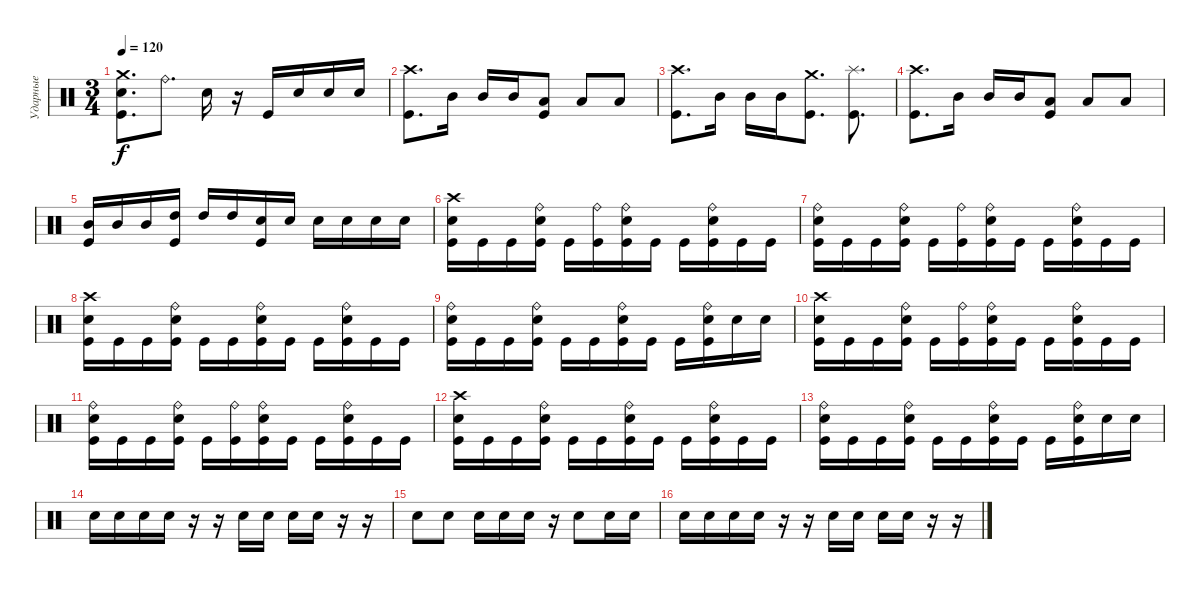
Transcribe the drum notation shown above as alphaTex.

\track ("Ударные" "Ударные") {instrument percussion}
\staff {score}
\articulation defaults
\ts (3 4)
\tempo 120
\clef neutral
\ks c
("Crash medium (hit)" "Electric Snare (hit)" "Kick (hit)").8{d dy f} "Ride (bell)".8{d} "Electric Snare (hit)".16 r.16 "Kick (hit)".16 "Electric Snare (hit)".16 "Electric Snare (hit)".16 "Electric Snare (hit)".16 |
("Crash high (hit)" "Kick (hit)").8{d} "Mid Tom (hit)".16 "Mid Tom (hit)".16 "Mid Tom (hit)".16 ("Low Tom (hit)" "Kick (hit)").8 "Low Tom (hit)".8 "Low Tom (hit)".8 |
("Crash high (hit)" "Kick (hit)").8{d} "Mid Tom (hit)".16 "Mid Tom (hit)".16 "Mid Tom (hit)".16 ("Crash medium (hit)" "Kick (hit)").8{d} ("Splash (hit)" "Kick (hit)").8{d} |
("Crash high (hit)" "Kick (hit)").8{d} "Mid Tom (hit)".16 "Mid Tom (hit)".16 "Mid Tom (hit)".16 ("Low Tom (hit)" "Kick (hit)").8 "Low Tom (hit)".8 "Low Tom (hit)".8 |
("Mid Tom (hit)" "Kick (hit)").16 "Mid Tom (hit)".16 "Mid Tom (hit)".16 ("High Tom (hit)" "Kick (hit)").16 "High Tom (hit)".16 "High Tom (hit)".16 ("Electric Snare (hit)" "Kick (hit)").16 "Electric Snare (hit)".16 "Electric Snare (hit)".16 "Electric Snare (hit)".16 "Electric Snare (hit)".16 "Electric Snare (hit)".16 |
("Crash high (hit)" "Electric Snare (hit)" "Kick (hit)").16 "Kick (hit)".16 "Kick (hit)".16 ("Ride (bell)" "Electric Snare (hit)" "Kick (hit)").16 "Kick (hit)".16 ("Ride (bell)" "Kick (hit)").16 ("Ride (bell)" "Electric Snare (hit)" "Kick (hit)").16 "Kick (hit)".16 "Kick (hit)".16 ("Ride (bell)" "Electric Snare (hit)" "Kick (hit)").16 "Kick (hit)".16 "Kick (hit)".16 |
("Ride (bell)" "Electric Snare (hit)" "Kick (hit)").16 "Kick (hit)".16 "Kick (hit)".16 ("Ride (bell)" "Electric Snare (hit)" "Kick (hit)").16 "Kick (hit)".16 ("Ride (bell)" "Kick (hit)").16 ("Ride (bell)" "Electric Snare (hit)" "Kick (hit)").16 "Kick (hit)".16 "Kick (hit)".16 ("Ride (bell)" "Electric Snare (hit)" "Kick (hit)").16 "Kick (hit)".16 "Kick (hit)".16 |
("Crash high (hit)" "Electric Snare (hit)" "Kick (hit)").16 "Kick (hit)".16 "Kick (hit)".16 ("Ride (bell)" "Electric Snare (hit)" "Kick (hit)").16 "Kick (hit)".16 "Kick (hit)".16 ("Ride (bell)" "Electric Snare (hit)" "Kick (hit)").16 "Kick (hit)".16 "Kick (hit)".16 ("Ride (bell)" "Electric Snare (hit)" "Kick (hit)").16 "Kick (hit)".16 "Kick (hit)".16 |
("Ride (bell)" "Electric Snare (hit)" "Kick (hit)").16 "Kick (hit)".16 "Kick (hit)".16 ("Ride (bell)" "Electric Snare (hit)" "Kick (hit)").16 "Kick (hit)".16 "Kick (hit)".16 ("Ride (bell)" "Electric Snare (hit)" "Kick (hit)").16 "Kick (hit)".16 "Kick (hit)".16 ("Ride (bell)" "Electric Snare (hit)" "Kick (hit)").16 "Electric Snare (hit)".16 "Electric Snare (hit)".16 |
("Crash high (hit)" "Electric Snare (hit)" "Kick (hit)").16 "Kick (hit)".16 "Kick (hit)".16 ("Ride (bell)" "Electric Snare (hit)" "Kick (hit)").16 "Kick (hit)".16 ("Ride (bell)" "Kick (hit)").16 ("Ride (bell)" "Electric Snare (hit)" "Kick (hit)").16 "Kick (hit)".16 "Kick (hit)".16 ("Ride (bell)" "Electric Snare (hit)" "Kick (hit)").16 "Kick (hit)".16 "Kick (hit)".16 |
("Ride (bell)" "Electric Snare (hit)" "Kick (hit)").16 "Kick (hit)".16 "Kick (hit)".16 ("Ride (bell)" "Electric Snare (hit)" "Kick (hit)").16 "Kick (hit)".16 ("Ride (bell)" "Kick (hit)").16 ("Ride (bell)" "Electric Snare (hit)" "Kick (hit)").16 "Kick (hit)".16 "Kick (hit)".16 ("Ride (bell)" "Electric Snare (hit)" "Kick (hit)").16 "Kick (hit)".16 "Kick (hit)".16 |
("Crash high (hit)" "Electric Snare (hit)" "Kick (hit)").16 "Kick (hit)".16 "Kick (hit)".16 ("Ride (bell)" "Electric Snare (hit)" "Kick (hit)").16 "Kick (hit)".16 "Kick (hit)".16 ("Ride (bell)" "Electric Snare (hit)" "Kick (hit)").16 "Kick (hit)".16 "Kick (hit)".16 ("Ride (bell)" "Electric Snare (hit)" "Kick (hit)").16 "Kick (hit)".16 "Kick (hit)".16 |
("Ride (bell)" "Electric Snare (hit)" "Kick (hit)").16 "Kick (hit)".16 "Kick (hit)".16 ("Ride (bell)" "Electric Snare (hit)" "Kick (hit)").16 "Kick (hit)".16 "Kick (hit)".16 ("Ride (bell)" "Electric Snare (hit)" "Kick (hit)").16 "Kick (hit)".16 "Kick (hit)".16 ("Ride (bell)" "Electric Snare (hit)" "Kick (hit)").16 "Electric Snare (hit)".16 "Electric Snare (hit)".16 |
"Electric Snare (hit)".16 "Electric Snare (hit)".16 "Electric Snare (hit)".16 "Electric Snare (hit)".16 r.16 r.16 "Electric Snare (hit)".16 "Electric Snare (hit)".16 "Electric Snare (hit)".16 "Electric Snare (hit)".16 r.16 r.16 |
"Electric Snare (hit)".8 "Electric Snare (hit)".8 "Electric Snare (hit)".16 "Electric Snare (hit)".16 "Electric Snare (hit)".16 r.16 "Electric Snare (hit)".8 "Electric Snare (hit)".16 "Electric Snare (hit)".16 |
"Electric Snare (hit)".16 "Electric Snare (hit)".16 "Electric Snare (hit)".16 "Electric Snare (hit)".16 r.16 r.16 "Electric Snare (hit)".16 "Electric Snare (hit)".16 "Electric Snare (hit)".16 "Electric Snare (hit)".16 r.16 r.16
